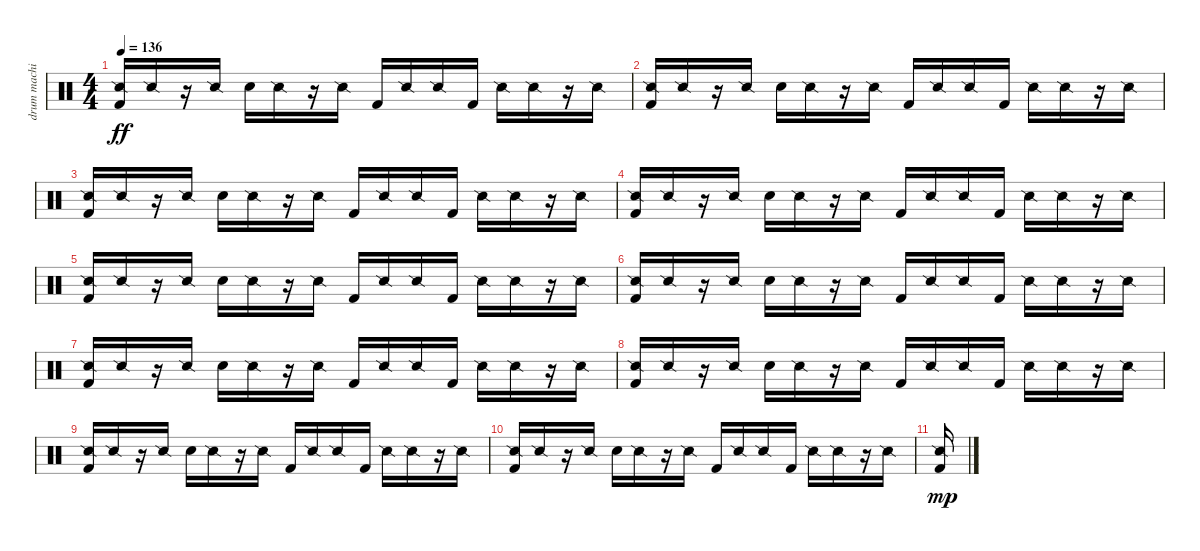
\track ("drum machine" "drum machi") {instrument percussion}
\staff {score}
\articulation defaults
\ts (4 4)
\tempo 136
\clef neutral
\ks c
("Snare (side stick) 2" "Kick (hit) 2").16{dy ff} "Snare (side stick) 2".16 r.16 "Snare (side stick) 2".16 "Electric Snare (hit)".16 "Snare (side stick) 2".16 r.16 "Snare (side stick) 2".16 "Kick (hit) 2".16 "Snare (side stick) 2".16 "Snare (side stick) 2".16 "Kick (hit) 2".16 "Snare (side stick) 2".16 "Snare (side stick) 2".16 r.16 "Snare (side stick) 2".16 |
("Snare (side stick) 2" "Kick (hit) 2").16 "Snare (side stick) 2".16 r.16 "Snare (side stick) 2".16 "Electric Snare (hit)".16 "Snare (side stick) 2".16 r.16 "Snare (side stick) 2".16 "Kick (hit) 2".16 "Snare (side stick) 2".16 "Snare (side stick) 2".16 "Kick (hit) 2".16 "Snare (side stick) 2".16 "Snare (side stick) 2".16 r.16 "Snare (side stick) 2".16 |
("Snare (side stick) 2" "Kick (hit) 2").16 "Snare (side stick) 2".16 r.16 "Snare (side stick) 2".16 "Electric Snare (hit)".16 "Snare (side stick) 2".16 r.16 "Snare (side stick) 2".16 "Kick (hit) 2".16 "Snare (side stick) 2".16 "Snare (side stick) 2".16 "Kick (hit) 2".16 "Snare (side stick) 2".16 "Snare (side stick) 2".16 r.16 "Snare (side stick) 2".16 |
("Snare (side stick) 2" "Kick (hit) 2").16 "Snare (side stick) 2".16 r.16 "Snare (side stick) 2".16 "Electric Snare (hit)".16 "Snare (side stick) 2".16 r.16 "Snare (side stick) 2".16 "Kick (hit) 2".16 "Snare (side stick) 2".16 "Snare (side stick) 2".16 "Kick (hit) 2".16 "Snare (side stick) 2".16 "Snare (side stick) 2".16 r.16 "Snare (side stick) 2".16 |
("Snare (side stick) 2" "Kick (hit) 2").16 "Snare (side stick) 2".16 r.16 "Snare (side stick) 2".16 "Electric Snare (hit)".16 "Snare (side stick) 2".16 r.16 "Snare (side stick) 2".16 "Kick (hit) 2".16 "Snare (side stick) 2".16 "Snare (side stick) 2".16 "Kick (hit) 2".16 "Snare (side stick) 2".16 "Snare (side stick) 2".16 r.16 "Snare (side stick) 2".16 |
("Snare (side stick) 2" "Kick (hit) 2").16 "Snare (side stick) 2".16 r.16 "Snare (side stick) 2".16 "Electric Snare (hit)".16 "Snare (side stick) 2".16 r.16 "Snare (side stick) 2".16 "Kick (hit) 2".16 "Snare (side stick) 2".16 "Snare (side stick) 2".16 "Kick (hit) 2".16 "Snare (side stick) 2".16 "Snare (side stick) 2".16 r.16 "Snare (side stick) 2".16 |
("Snare (side stick) 2" "Kick (hit) 2").16 "Snare (side stick) 2".16 r.16 "Snare (side stick) 2".16 "Electric Snare (hit)".16 "Snare (side stick) 2".16 r.16 "Snare (side stick) 2".16 "Kick (hit) 2".16 "Snare (side stick) 2".16 "Snare (side stick) 2".16 "Kick (hit) 2".16 "Snare (side stick) 2".16 "Snare (side stick) 2".16 r.16 "Snare (side stick) 2".16 |
("Snare (side stick) 2" "Kick (hit) 2").16 "Snare (side stick) 2".16 r.16 "Snare (side stick) 2".16 "Electric Snare (hit)".16 "Snare (side stick) 2".16 r.16 "Snare (side stick) 2".16 "Kick (hit) 2".16 "Snare (side stick) 2".16 "Snare (side stick) 2".16 "Kick (hit) 2".16 "Snare (side stick) 2".16 "Snare (side stick) 2".16 r.16 "Snare (side stick) 2".16 |
("Snare (side stick) 2" "Kick (hit) 2").16 "Snare (side stick) 2".16 r.16 "Snare (side stick) 2".16 "Electric Snare (hit)".16 "Snare (side stick) 2".16 r.16 "Snare (side stick) 2".16 "Kick (hit) 2".16 "Snare (side stick) 2".16 "Snare (side stick) 2".16 "Kick (hit) 2".16 "Snare (side stick) 2".16 "Snare (side stick) 2".16 r.16 "Snare (side stick) 2".16 |
("Snare (side stick) 2" "Kick (hit) 2").16 "Snare (side stick) 2".16 r.16 "Snare (side stick) 2".16 "Electric Snare (hit)".16 "Snare (side stick) 2".16 r.16 "Snare (side stick) 2".16 "Kick (hit) 2".16 "Snare (side stick) 2".16 "Snare (side stick) 2".16 "Kick (hit) 2".16 "Snare (side stick) 2".16 "Snare (side stick) 2".16 r.16 "Snare (side stick) 2".16 |
("Snare (side stick) 2" "Kick (hit) 2").16{dy mp}
